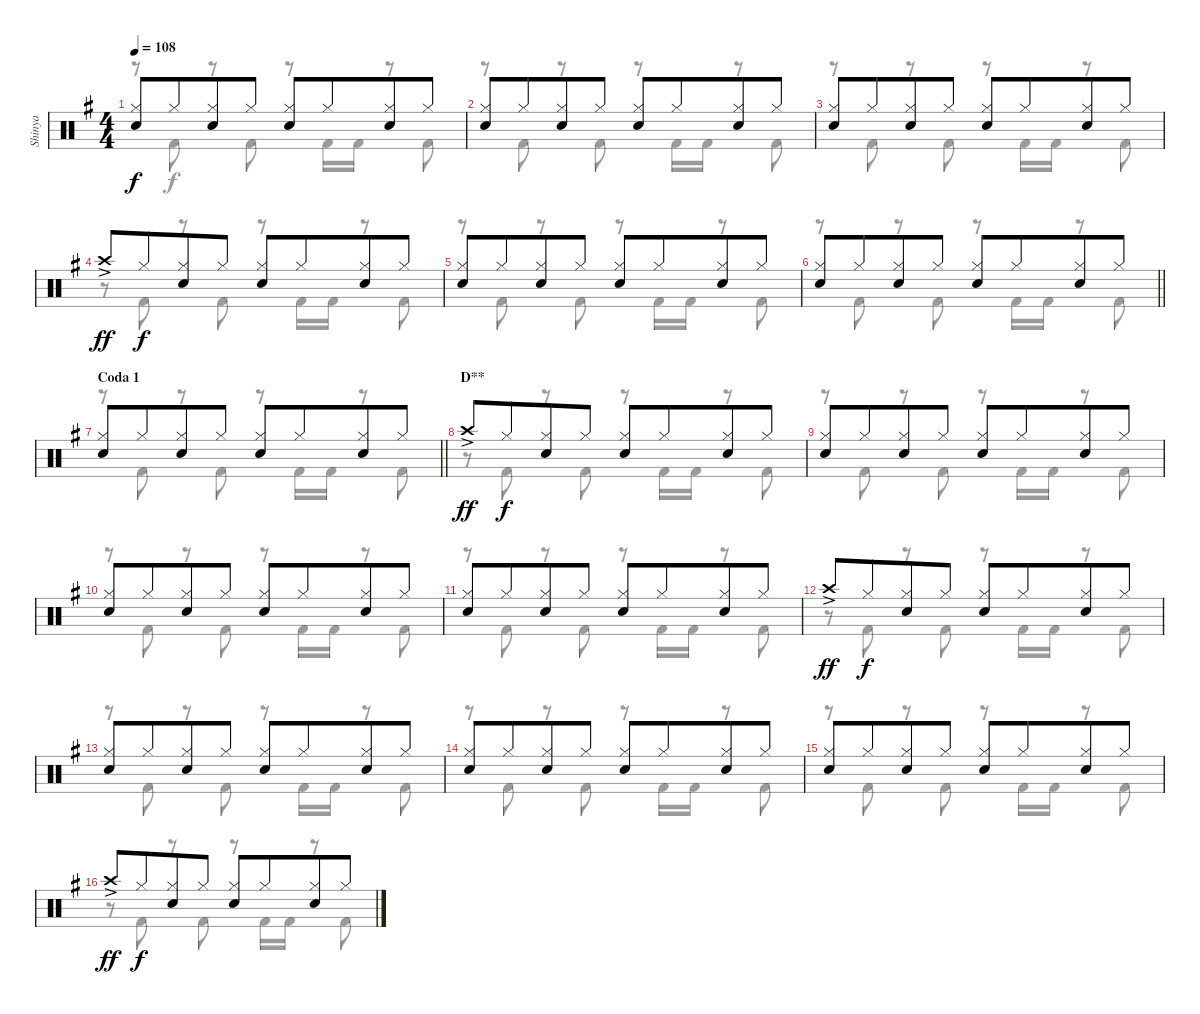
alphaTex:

\track ("Shinya" "Shinya") {instrument percussion}
\staff {score}
\articulation defaults
\voice
\ts (4 4)
\tempo 108
\clef neutral
\ks eminor
("Hi-Hat (closed)" "Snare (hit) 2").8{dy f} "Hi-Hat (closed)".8{beam merge} ("Hi-Hat (closed)" "Snare (hit) 2").8 "Hi-Hat (closed)".8 ("Hi-Hat (closed)" "Snare (hit) 2").8 "Hi-Hat (closed)".8{beam merge} ("Hi-Hat (closed)" "Snare (hit) 2").8 "Hi-Hat (closed)".8 |
("Hi-Hat (closed)" "Snare (hit) 2").8 "Hi-Hat (closed)".8{beam merge} ("Hi-Hat (closed)" "Snare (hit) 2").8 "Hi-Hat (closed)".8 ("Hi-Hat (closed)" "Snare (hit) 2").8 "Hi-Hat (closed)".8{beam merge} ("Hi-Hat (closed)" "Snare (hit) 2").8 "Hi-Hat (closed)".8 |
("Hi-Hat (closed)" "Snare (hit) 2").8 "Hi-Hat (closed)".8{beam merge} ("Hi-Hat (closed)" "Snare (hit) 2").8 "Hi-Hat (closed)".8 ("Hi-Hat (closed)" "Snare (hit) 2").8 "Hi-Hat (closed)".8{beam merge} ("Hi-Hat (closed)" "Snare (hit) 2").8 "Hi-Hat (closed)".8 |
"Crash high (hit)"{ac}.8{dy ff} "Hi-Hat (closed)".8{dy f beam merge} ("Hi-Hat (closed)" "Snare (hit) 2").8 "Hi-Hat (closed)".8 ("Hi-Hat (closed)" "Snare (hit) 2").8 "Hi-Hat (closed)".8{beam merge} ("Hi-Hat (closed)" "Snare (hit) 2").8 "Hi-Hat (closed)".8 |
("Hi-Hat (closed)" "Snare (hit) 2").8 "Hi-Hat (closed)".8{beam merge} ("Hi-Hat (closed)" "Snare (hit) 2").8 "Hi-Hat (closed)".8 ("Hi-Hat (closed)" "Snare (hit) 2").8 "Hi-Hat (closed)".8{beam merge} ("Hi-Hat (closed)" "Snare (hit) 2").8 "Hi-Hat (closed)".8 |
\barLineRight lightlight
("Hi-Hat (closed)" "Snare (hit) 2").8 "Hi-Hat (closed)".8{beam merge} ("Hi-Hat (closed)" "Snare (hit) 2").8 "Hi-Hat (closed)".8 ("Hi-Hat (closed)" "Snare (hit) 2").8 "Hi-Hat (closed)".8{beam merge} ("Hi-Hat (closed)" "Snare (hit) 2").8 "Hi-Hat (closed)".8 |
\section ("" "Coda 1")
\barLineRight lightlight
("Hi-Hat (closed)" "Snare (hit) 2").8 "Hi-Hat (closed)".8{beam merge} ("Hi-Hat (closed)" "Snare (hit) 2").8 "Hi-Hat (closed)".8 ("Hi-Hat (closed)" "Snare (hit) 2").8 "Hi-Hat (closed)".8{beam merge} ("Hi-Hat (closed)" "Snare (hit) 2").8 "Hi-Hat (closed)".8 |
\section ("" "D**")
"Crash high (hit)"{ac}.8{dy ff} "Hi-Hat (closed)".8{dy f beam merge} ("Hi-Hat (closed)" "Snare (hit) 2").8 "Hi-Hat (closed)".8 ("Hi-Hat (closed)" "Snare (hit) 2").8 "Hi-Hat (closed)".8{beam merge} ("Hi-Hat (closed)" "Snare (hit) 2").8 "Hi-Hat (closed)".8 |
("Hi-Hat (closed)" "Snare (hit) 2").8 "Hi-Hat (closed)".8{beam merge} ("Hi-Hat (closed)" "Snare (hit) 2").8 "Hi-Hat (closed)".8 ("Hi-Hat (closed)" "Snare (hit) 2").8 "Hi-Hat (closed)".8{beam merge} ("Hi-Hat (closed)" "Snare (hit) 2").8 "Hi-Hat (closed)".8 |
("Hi-Hat (closed)" "Snare (hit) 2").8 "Hi-Hat (closed)".8{beam merge} ("Hi-Hat (closed)" "Snare (hit) 2").8 "Hi-Hat (closed)".8 ("Hi-Hat (closed)" "Snare (hit) 2").8 "Hi-Hat (closed)".8{beam merge} ("Hi-Hat (closed)" "Snare (hit) 2").8 "Hi-Hat (closed)".8 |
("Hi-Hat (closed)" "Snare (hit) 2").8 "Hi-Hat (closed)".8{beam merge} ("Hi-Hat (closed)" "Snare (hit) 2").8 "Hi-Hat (closed)".8 ("Hi-Hat (closed)" "Snare (hit) 2").8 "Hi-Hat (closed)".8{beam merge} ("Hi-Hat (closed)" "Snare (hit) 2").8 "Hi-Hat (closed)".8 |
"Crash high (hit)"{ac}.8{dy ff} "Hi-Hat (closed)".8{dy f beam merge} ("Hi-Hat (closed)" "Snare (hit) 2").8 "Hi-Hat (closed)".8 ("Hi-Hat (closed)" "Snare (hit) 2").8 "Hi-Hat (closed)".8{beam merge} ("Hi-Hat (closed)" "Snare (hit) 2").8 "Hi-Hat (closed)".8 |
("Hi-Hat (closed)" "Snare (hit) 2").8 "Hi-Hat (closed)".8{beam merge} ("Hi-Hat (closed)" "Snare (hit) 2").8 "Hi-Hat (closed)".8 ("Hi-Hat (closed)" "Snare (hit) 2").8 "Hi-Hat (closed)".8{beam merge} ("Hi-Hat (closed)" "Snare (hit) 2").8 "Hi-Hat (closed)".8 |
("Hi-Hat (closed)" "Snare (hit) 2").8 "Hi-Hat (closed)".8{beam merge} ("Hi-Hat (closed)" "Snare (hit) 2").8 "Hi-Hat (closed)".8 ("Hi-Hat (closed)" "Snare (hit) 2").8 "Hi-Hat (closed)".8{beam merge} ("Hi-Hat (closed)" "Snare (hit) 2").8 "Hi-Hat (closed)".8 |
("Hi-Hat (closed)" "Snare (hit) 2").8 "Hi-Hat (closed)".8{beam merge} ("Hi-Hat (closed)" "Snare (hit) 2").8 "Hi-Hat (closed)".8 ("Hi-Hat (closed)" "Snare (hit) 2").8 "Hi-Hat (closed)".8{beam merge} ("Hi-Hat (closed)" "Snare (hit) 2").8 "Hi-Hat (closed)".8 |
"Crash high (hit)"{ac}.8{dy ff} "Hi-Hat (closed)".8{dy f beam merge} ("Hi-Hat (closed)" "Snare (hit) 2").8 "Hi-Hat (closed)".8 ("Hi-Hat (closed)" "Snare (hit) 2").8 "Hi-Hat (closed)".8{beam merge} ("Hi-Hat (closed)" "Snare (hit) 2").8 "Hi-Hat (closed)".8
\voice
\clef neutral
\ottava regular
\simile none
\ks eminor
r.8{dy f} "Kick (hit) 2".8 r.8 "Kick (hit) 2".8 r.8 "Kick (hit) 2".16 "Kick (hit) 2".16 r.8 "Kick (hit) 2".8 |
r.8 "Kick (hit) 2".8 r.8 "Kick (hit) 2".8 r.8 "Kick (hit) 2".16 "Kick (hit) 2".16 r.8 "Kick (hit) 2".8 |
r.8 "Kick (hit) 2".8 r.8 "Kick (hit) 2".8 r.8 "Kick (hit) 2".16 "Kick (hit) 2".16 r.8 "Kick (hit) 2".8 |
r.8 "Kick (hit) 2".8 r.8 "Kick (hit) 2".8 r.8 "Kick (hit) 2".16 "Kick (hit) 2".16 r.8 "Kick (hit) 2".8 |
r.8 "Kick (hit) 2".8 r.8 "Kick (hit) 2".8 r.8 "Kick (hit) 2".16 "Kick (hit) 2".16 r.8 "Kick (hit) 2".8 |
\barLineRight lightlight
r.8 "Kick (hit) 2".8 r.8 "Kick (hit) 2".8 r.8 "Kick (hit) 2".16 "Kick (hit) 2".16 r.8 "Kick (hit) 2".8 |
\barLineRight lightlight
r.8 "Kick (hit) 2".8 r.8 "Kick (hit) 2".8 r.8 "Kick (hit) 2".16 "Kick (hit) 2".16 r.8 "Kick (hit) 2".8 |
r.8 "Kick (hit) 2".8 r.8 "Kick (hit) 2".8 r.8 "Kick (hit) 2".16 "Kick (hit) 2".16 r.8 "Kick (hit) 2".8 |
r.8 "Kick (hit) 2".8 r.8 "Kick (hit) 2".8 r.8 "Kick (hit) 2".16 "Kick (hit) 2".16 r.8 "Kick (hit) 2".8 |
r.8 "Kick (hit) 2".8 r.8 "Kick (hit) 2".8 r.8 "Kick (hit) 2".16 "Kick (hit) 2".16 r.8 "Kick (hit) 2".8 |
r.8 "Kick (hit) 2".8 r.8 "Kick (hit) 2".8 r.8 "Kick (hit) 2".16 "Kick (hit) 2".16 r.8 "Kick (hit) 2".8 |
r.8 "Kick (hit) 2".8 r.8 "Kick (hit) 2".8 r.8 "Kick (hit) 2".16 "Kick (hit) 2".16 r.8 "Kick (hit) 2".8 |
r.8 "Kick (hit) 2".8 r.8 "Kick (hit) 2".8 r.8 "Kick (hit) 2".16 "Kick (hit) 2".16 r.8 "Kick (hit) 2".8 |
r.8 "Kick (hit) 2".8 r.8 "Kick (hit) 2".8 r.8 "Kick (hit) 2".16 "Kick (hit) 2".16 r.8 "Kick (hit) 2".8 |
r.8 "Kick (hit) 2".8 r.8 "Kick (hit) 2".8 r.8 "Kick (hit) 2".16 "Kick (hit) 2".16 r.8 "Kick (hit) 2".8 |
r.8 "Kick (hit) 2".8 r.8 "Kick (hit) 2".8 r.8 "Kick (hit) 2".16 "Kick (hit) 2".16 r.8 "Kick (hit) 2".8
